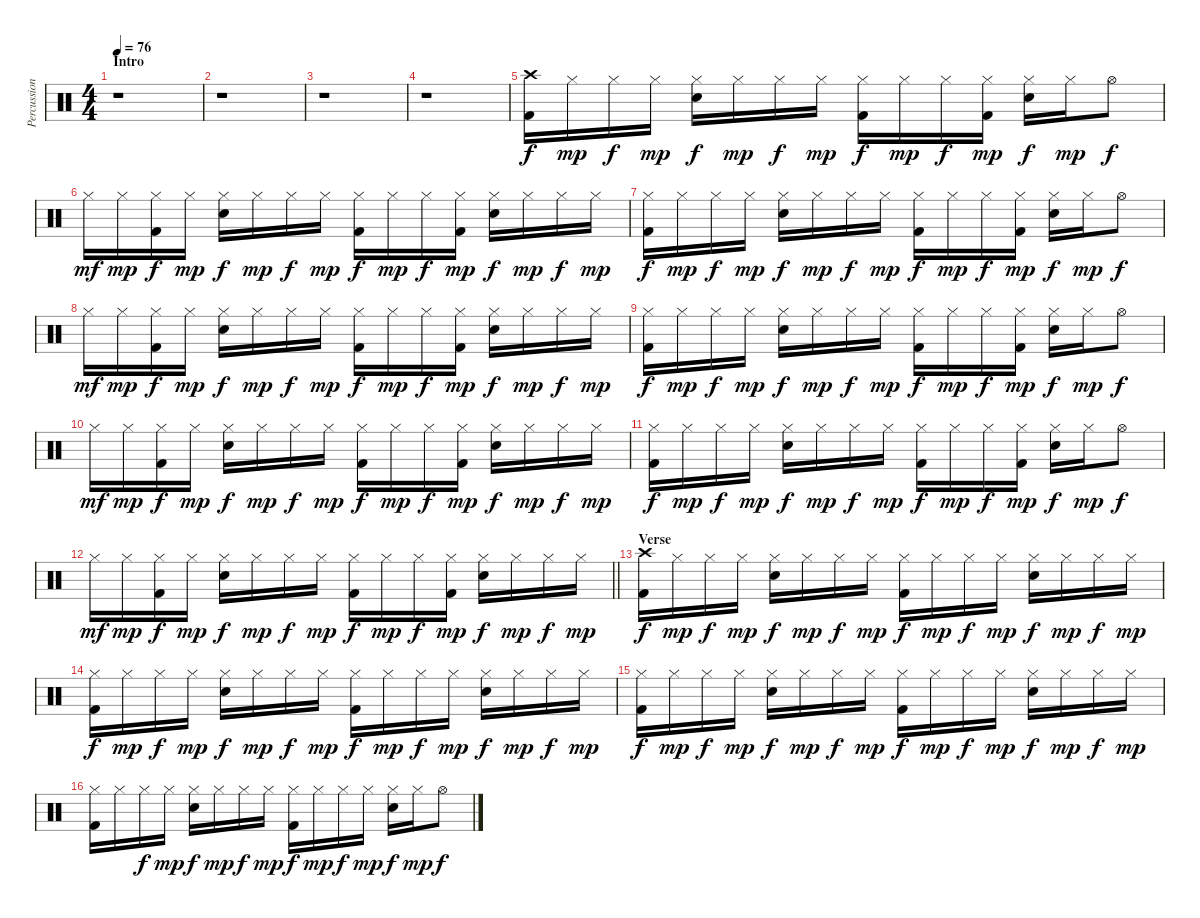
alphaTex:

\track ("Percussion" "Percussion") {instrument percussion}
\staff {score}
\articulation defaults
\ts (4 4)
\section ("" "Intro")
\tempo 76
\clef neutral
\ks c
r.1{dy f} |
r.1 |
r.1 |
r.1 |
("Kick (hit) 2" "Crash high (hit)").16 "Hi-Hat (closed)".16{dy mp} "Hi-Hat (closed)".16{dy f} "Hi-Hat (closed)".16{dy mp} ("Snare (hit) 2" "Hi-Hat (closed)").16{dy f} "Hi-Hat (closed)".16{dy mp} "Hi-Hat (closed)".16{dy f} "Hi-Hat (closed)".16{dy mp} ("Kick (hit) 2" "Hi-Hat (closed)").16{dy f} "Hi-Hat (closed)".16{dy mp} "Hi-Hat (closed)".16{dy f} ("Kick (hit) 2" "Hi-Hat (closed)").16{dy mp} ("Snare (hit) 2" "Hi-Hat (closed)").16{dy f} "Hi-Hat (closed)".16{dy mp} "Hi-Hat (open)".8{dy f} |
"Hi-Hat (closed)".16{dy mf} "Hi-Hat (closed)".16{dy mp} ("Kick (hit) 2" "Hi-Hat (closed)").16{dy f} "Hi-Hat (closed)".16{dy mp} ("Snare (hit) 2" "Hi-Hat (closed)").16{dy f} "Hi-Hat (closed)".16{dy mp} "Hi-Hat (closed)".16{dy f} "Hi-Hat (closed)".16{dy mp} ("Kick (hit) 2" "Hi-Hat (closed)").16{dy f} "Hi-Hat (closed)".16{dy mp} "Hi-Hat (closed)".16{dy f} ("Kick (hit) 2" "Hi-Hat (closed)").16{dy mp} ("Snare (hit) 2" "Hi-Hat (closed)").16{dy f} "Hi-Hat (closed)".16{dy mp} "Hi-Hat (closed)".16{dy f} "Hi-Hat (closed)".16{dy mp} |
("Kick (hit) 2" "Hi-Hat (closed)").16{dy f} "Hi-Hat (closed)".16{dy mp} "Hi-Hat (closed)".16{dy f} "Hi-Hat (closed)".16{dy mp} ("Snare (hit) 2" "Hi-Hat (closed)").16{dy f} "Hi-Hat (closed)".16{dy mp} "Hi-Hat (closed)".16{dy f} "Hi-Hat (closed)".16{dy mp} ("Kick (hit) 2" "Hi-Hat (closed)").16{dy f} "Hi-Hat (closed)".16{dy mp} "Hi-Hat (closed)".16{dy f} ("Kick (hit) 2" "Hi-Hat (closed)").16{dy mp} ("Snare (hit) 2" "Hi-Hat (closed)").16{dy f} "Hi-Hat (closed)".16{dy mp} "Hi-Hat (open)".8{dy f} |
"Hi-Hat (closed)".16{dy mf} "Hi-Hat (closed)".16{dy mp} ("Kick (hit) 2" "Hi-Hat (closed)").16{dy f} "Hi-Hat (closed)".16{dy mp} ("Snare (hit) 2" "Hi-Hat (closed)").16{dy f} "Hi-Hat (closed)".16{dy mp} "Hi-Hat (closed)".16{dy f} "Hi-Hat (closed)".16{dy mp} ("Kick (hit) 2" "Hi-Hat (closed)").16{dy f} "Hi-Hat (closed)".16{dy mp} "Hi-Hat (closed)".16{dy f} ("Kick (hit) 2" "Hi-Hat (closed)").16{dy mp} ("Snare (hit) 2" "Hi-Hat (closed)").16{dy f} "Hi-Hat (closed)".16{dy mp} "Hi-Hat (closed)".16{dy f} "Hi-Hat (closed)".16{dy mp} |
("Kick (hit) 2" "Hi-Hat (closed)").16{dy f} "Hi-Hat (closed)".16{dy mp} "Hi-Hat (closed)".16{dy f} "Hi-Hat (closed)".16{dy mp} ("Snare (hit) 2" "Hi-Hat (closed)").16{dy f} "Hi-Hat (closed)".16{dy mp} "Hi-Hat (closed)".16{dy f} "Hi-Hat (closed)".16{dy mp} ("Kick (hit) 2" "Hi-Hat (closed)").16{dy f} "Hi-Hat (closed)".16{dy mp} "Hi-Hat (closed)".16{dy f} ("Kick (hit) 2" "Hi-Hat (closed)").16{dy mp} ("Snare (hit) 2" "Hi-Hat (closed)").16{dy f} "Hi-Hat (closed)".16{dy mp} "Hi-Hat (open)".8{dy f} |
"Hi-Hat (closed)".16{dy mf} "Hi-Hat (closed)".16{dy mp} ("Kick (hit) 2" "Hi-Hat (closed)").16{dy f} "Hi-Hat (closed)".16{dy mp} ("Snare (hit) 2" "Hi-Hat (closed)").16{dy f} "Hi-Hat (closed)".16{dy mp} "Hi-Hat (closed)".16{dy f} "Hi-Hat (closed)".16{dy mp} ("Kick (hit) 2" "Hi-Hat (closed)").16{dy f} "Hi-Hat (closed)".16{dy mp} "Hi-Hat (closed)".16{dy f} ("Kick (hit) 2" "Hi-Hat (closed)").16{dy mp} ("Snare (hit) 2" "Hi-Hat (closed)").16{dy f} "Hi-Hat (closed)".16{dy mp} "Hi-Hat (closed)".16{dy f} "Hi-Hat (closed)".16{dy mp} |
("Kick (hit) 2" "Hi-Hat (closed)").16{dy f} "Hi-Hat (closed)".16{dy mp} "Hi-Hat (closed)".16{dy f} "Hi-Hat (closed)".16{dy mp} ("Snare (hit) 2" "Hi-Hat (closed)").16{dy f} "Hi-Hat (closed)".16{dy mp} "Hi-Hat (closed)".16{dy f} "Hi-Hat (closed)".16{dy mp} ("Kick (hit) 2" "Hi-Hat (closed)").16{dy f} "Hi-Hat (closed)".16{dy mp} "Hi-Hat (closed)".16{dy f} ("Kick (hit) 2" "Hi-Hat (closed)").16{dy mp} ("Snare (hit) 2" "Hi-Hat (closed)").16{dy f} "Hi-Hat (closed)".16{dy mp} "Hi-Hat (open)".8{dy f} |
\barLineRight lightlight "Hi-Hat (closed)".16{dy mf} "Hi-Hat (closed)".16{dy mp}
("Kick (hit) 2" "Hi-Hat (closed)").16{dy f} "Hi-Hat (closed)".16{dy mp} ("Snare (hit) 2" "Hi-Hat (closed)").16{dy f} "Hi-Hat (closed)".16{dy mp} "Hi-Hat (closed)".16{dy f} "Hi-Hat (closed)".16{dy mp} ("Kick (hit) 2" "Hi-Hat (closed)").16{dy f} "Hi-Hat (closed)".16{dy mp} "Hi-Hat (closed)".16{dy f} ("Kick (hit) 2" "Hi-Hat (closed)").16{dy mp} ("Snare (hit) 2" "Hi-Hat (closed)").16{dy f} "Hi-Hat (closed)".16{dy mp} "Hi-Hat (closed)".16{dy f} "Hi-Hat (closed)".16{dy mp} |
\section ("" "Verse")
("Kick (hit) 2" "Crash high (hit)").16{dy f} "Hi-Hat (closed)".16{dy mp} "Hi-Hat (closed)".16{dy f} "Hi-Hat (closed)".16{dy mp} ("Snare (hit) 2" "Hi-Hat (closed)").16{dy f} "Hi-Hat (closed)".16{dy mp} "Hi-Hat (closed)".16{dy f} "Hi-Hat (closed)".16{dy mp} ("Kick (hit) 2" "Hi-Hat (closed)").16{dy f} "Hi-Hat (closed)".16{dy mp} "Hi-Hat (closed)".16{dy f} "Hi-Hat (closed)".16{dy mp} ("Snare (hit) 2" "Hi-Hat (closed)").16{dy f} "Hi-Hat (closed)".16{dy mp} "Hi-Hat (closed)".16{dy f} "Hi-Hat (closed)".16{dy mp} |
("Kick (hit) 2" "Hi-Hat (closed)").16{dy f} "Hi-Hat (closed)".16{dy mp} "Hi-Hat (closed)".16{dy f} "Hi-Hat (closed)".16{dy mp} ("Snare (hit) 2" "Hi-Hat (closed)").16{dy f} "Hi-Hat (closed)".16{dy mp} "Hi-Hat (closed)".16{dy f} "Hi-Hat (closed)".16{dy mp} ("Kick (hit) 2" "Hi-Hat (closed)").16{dy f} "Hi-Hat (closed)".16{dy mp} "Hi-Hat (closed)".16{dy f} "Hi-Hat (closed)".16{dy mp} ("Snare (hit) 2" "Hi-Hat (closed)").16{dy f} "Hi-Hat (closed)".16{dy mp} "Hi-Hat (closed)".16{dy f} "Hi-Hat (closed)".16{dy mp} |
("Kick (hit) 2" "Hi-Hat (closed)").16{dy f} "Hi-Hat (closed)".16{dy mp} "Hi-Hat (closed)".16{dy f} "Hi-Hat (closed)".16{dy mp} ("Snare (hit) 2" "Hi-Hat (closed)").16{dy f} "Hi-Hat (closed)".16{dy mp} "Hi-Hat (closed)".16{dy f} "Hi-Hat (closed)".16{dy mp} ("Kick (hit) 2" "Hi-Hat (closed)").16{dy f} "Hi-Hat (closed)".16{dy mp} "Hi-Hat (closed)".16{dy f} "Hi-Hat (closed)".16{dy mp} ("Snare (hit) 2" "Hi-Hat (closed)").16{dy f} "Hi-Hat (closed)".16{dy mp} "Hi-Hat (closed)".16{dy f} "Hi-Hat (closed)".16{dy mp} |
("Kick (hit) 2" "Hi-Hat (closed)").16 "Hi-Hat (closed)".16 "Hi-Hat (closed)".16{dy f} "Hi-Hat (closed)".16{dy mp} ("Snare (hit) 2" "Hi-Hat (closed)").16{dy f} "Hi-Hat (closed)".16{dy mp} "Hi-Hat (closed)".16{dy f} "Hi-Hat (closed)".16{dy mp} ("Kick (hit) 2" "Hi-Hat (closed)").16{dy f} "Hi-Hat (closed)".16{dy mp} "Hi-Hat (closed)".16{dy f} "Hi-Hat (closed)".16{dy mp} ("Snare (hit) 2" "Hi-Hat (closed)").16{dy f} "Hi-Hat (closed)".16{dy mp} "Hi-Hat (open)".8{dy f}
